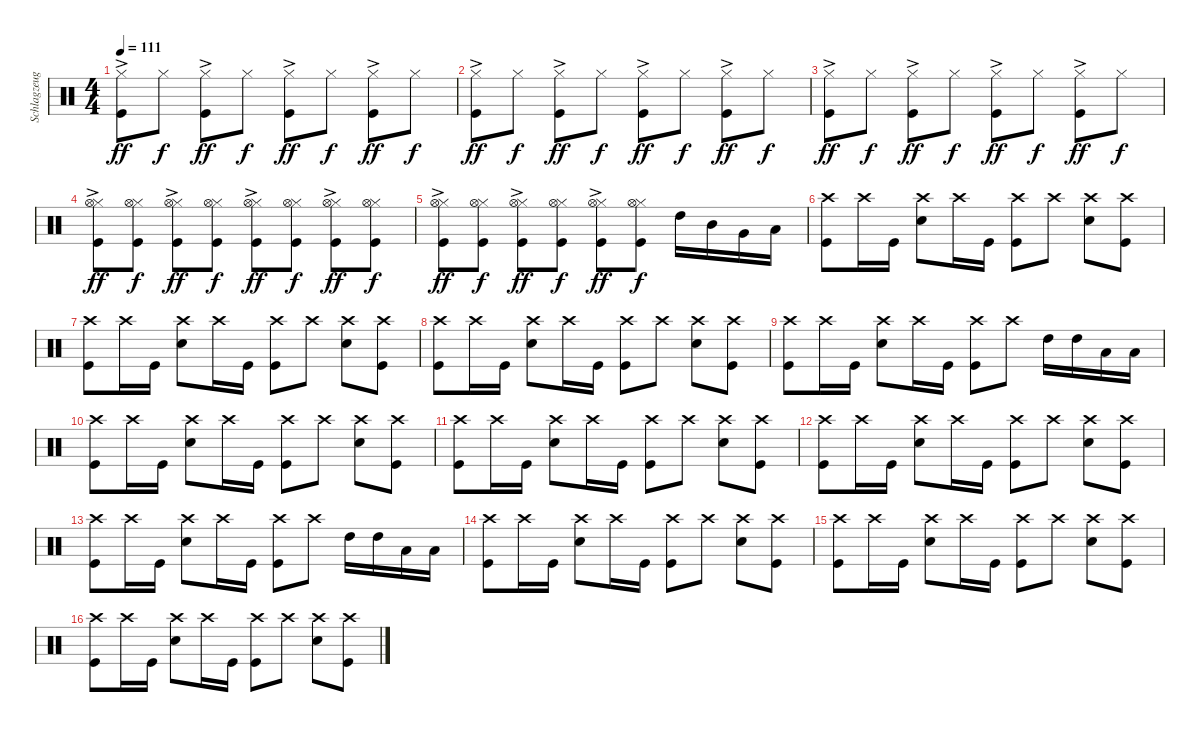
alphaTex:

\track ("Schlagzeug" "Schlagzeug") {solo instrument percussion}
\staff {score}
\articulation defaults
\ts (4 4)
\tempo 111
\clef neutral
\ks c
("Hi-Hat (closed)"{ac} "Kick (hit)").8{dy ff} "Hi-Hat (closed)".8{dy f} ("Hi-Hat (closed)"{ac} "Kick (hit)").8{dy ff} "Hi-Hat (closed)".8{dy f} ("Hi-Hat (closed)"{ac} "Kick (hit)").8{dy ff} "Hi-Hat (closed)".8{dy f} ("Hi-Hat (closed)"{ac} "Kick (hit)").8{dy ff} "Hi-Hat (closed)".8{dy f} |
("Hi-Hat (closed)"{ac} "Kick (hit)").8{dy ff} "Hi-Hat (closed)".8{dy f} ("Hi-Hat (closed)"{ac} "Kick (hit)").8{dy ff} "Hi-Hat (closed)".8{dy f} ("Hi-Hat (closed)"{ac} "Kick (hit)").8{dy ff} "Hi-Hat (closed)".8{dy f} ("Hi-Hat (closed)"{ac} "Kick (hit)").8{dy ff} "Hi-Hat (closed)".8{dy f} |
("Hi-Hat (closed)"{ac} "Kick (hit)").8{dy ff} "Hi-Hat (closed)".8{dy f} ("Hi-Hat (closed)"{ac} "Kick (hit)").8{dy ff} "Hi-Hat (closed)".8{dy f} ("Hi-Hat (closed)"{ac} "Kick (hit)").8{dy ff} "Hi-Hat (closed)".8{dy f} ("Hi-Hat (closed)"{ac} "Kick (hit)").8{dy ff} "Hi-Hat (closed)".8{dy f} |
("Hi-Hat (closed)"{ac} "Kick (hit)" "Hi-Hat (open)").8{dy ff} ("Hi-Hat (closed)" "Hi-Hat (open)" "Kick (hit)").8{dy f} ("Hi-Hat (closed)"{ac} "Kick (hit)" "Hi-Hat (open)").8{dy ff} ("Hi-Hat (closed)" "Hi-Hat (open)" "Kick (hit)").8{dy f} ("Hi-Hat (closed)"{ac} "Kick (hit)" "Hi-Hat (open)").8{dy ff} ("Hi-Hat (closed)" "Hi-Hat (open)" "Kick (hit)").8{dy f} ("Hi-Hat (closed)"{ac} "Kick (hit)" "Hi-Hat (open)").8{dy ff} ("Hi-Hat (closed)" "Hi-Hat (open)" "Kick (hit)").8{dy f} |
("Hi-Hat (closed)"{ac} "Kick (hit)" "Hi-Hat (open)").8{dy ff} ("Hi-Hat (closed)" "Hi-Hat (open)" "Kick (hit)").8{dy f} ("Hi-Hat (closed)"{ac} "Kick (hit)" "Hi-Hat (open)").8{dy ff} ("Hi-Hat (closed)" "Hi-Hat (open)" "Kick (hit)").8{dy f} ("Hi-Hat (closed)"{ac} "Kick (hit)" "Hi-Hat (open)").8{dy ff} ("Hi-Hat (closed)" "Hi-Hat (open)" "Kick (hit)").8{dy f} "High Tom (hit)".16 "Mid Tom (hit)".16 "Very Low Tom (hit)".16 "Low Floor Tom (hit)".16 |
("Crash high (hit)" "Kick (hit)").8 "Crash high (hit)".16 "Kick (hit)".16 ("Crash high (hit)" "Snare (hit) 2").8 "Crash high (hit)".16 "Kick (hit)".16 ("Crash high (hit)" "Kick (hit)").8 "Crash high (hit)".8 ("Snare (hit) 2" "Crash high (hit)").8 ("Crash high (hit)" "Kick (hit)").8 |
("Crash high (hit)" "Kick (hit)").8 "Crash high (hit)".16 "Kick (hit)".16 ("Crash high (hit)" "Snare (hit) 2").8 "Crash high (hit)".16 "Kick (hit)".16 ("Crash high (hit)" "Kick (hit)").8 "Crash high (hit)".8 ("Snare (hit) 2" "Crash high (hit)").8 ("Crash high (hit)" "Kick (hit)").8 |
("Crash high (hit)" "Kick (hit)").8 "Crash high (hit)".16 "Kick (hit)".16 ("Crash high (hit)" "Snare (hit) 2").8 "Crash high (hit)".16 "Kick (hit)".16 ("Crash high (hit)" "Kick (hit)").8 "Crash high (hit)".8 ("Snare (hit) 2" "Crash high (hit)").8 ("Crash high (hit)" "Kick (hit)").8 |
("Crash high (hit)" "Kick (hit)").8 "Crash high (hit)".16 "Kick (hit)".16 ("Crash high (hit)" "Snare (hit) 2").8 "Crash high (hit)".16 "Kick (hit)".16 ("Crash high (hit)" "Kick (hit)").8 "Crash high (hit)".8 "High Tom (hit)".16 "High Tom (hit)".16 "Low Tom (hit)".16 "Low Tom (hit)".16 |
("Crash high (hit)" "Kick (hit)").8 "Crash high (hit)".16 "Kick (hit)".16 ("Crash high (hit)" "Snare (hit) 2").8 "Crash high (hit)".16 "Kick (hit)".16 ("Crash high (hit)" "Kick (hit)").8 "Crash high (hit)".8 ("Snare (hit) 2" "Crash high (hit)").8 ("Crash high (hit)" "Kick (hit)").8 |
("Crash high (hit)" "Kick (hit)").8 "Crash high (hit)".16 "Kick (hit)".16 ("Crash high (hit)" "Snare (hit) 2").8 "Crash high (hit)".16 "Kick (hit)".16 ("Crash high (hit)" "Kick (hit)").8 "Crash high (hit)".8 ("Snare (hit) 2" "Crash high (hit)").8 ("Crash high (hit)" "Kick (hit)").8 |
("Crash high (hit)" "Kick (hit)").8 "Crash high (hit)".16 "Kick (hit)".16 ("Crash high (hit)" "Snare (hit) 2").8 "Crash high (hit)".16 "Kick (hit)".16 ("Crash high (hit)" "Kick (hit)").8 "Crash high (hit)".8 ("Snare (hit) 2" "Crash high (hit)").8 ("Crash high (hit)" "Kick (hit)").8 |
("Crash high (hit)" "Kick (hit)").8 "Crash high (hit)".16 "Kick (hit)".16 ("Crash high (hit)" "Snare (hit) 2").8 "Crash high (hit)".16 "Kick (hit)".16 ("Crash high (hit)" "Kick (hit)").8 "Crash high (hit)".8 "High Tom (hit)".16 "High Tom (hit)".16 "Low Tom (hit)".16 "Low Tom (hit)".16 |
("Crash high (hit)" "Kick (hit)").8 "Crash high (hit)".16 "Kick (hit)".16 ("Crash high (hit)" "Snare (hit) 2").8 "Crash high (hit)".16 "Kick (hit)".16 ("Crash high (hit)" "Kick (hit)").8 "Crash high (hit)".8 ("Snare (hit) 2" "Crash high (hit)").8 ("Crash high (hit)" "Kick (hit)").8 |
("Crash high (hit)" "Kick (hit)").8 "Crash high (hit)".16 "Kick (hit)".16 ("Crash high (hit)" "Snare (hit) 2").8 "Crash high (hit)".16 "Kick (hit)".16 ("Crash high (hit)" "Kick (hit)").8 "Crash high (hit)".8 ("Snare (hit) 2" "Crash high (hit)").8 ("Crash high (hit)" "Kick (hit)").8 |
("Crash high (hit)" "Kick (hit)").8 "Crash high (hit)".16 "Kick (hit)".16 ("Crash high (hit)" "Snare (hit) 2").8 "Crash high (hit)".16 "Kick (hit)".16 ("Crash high (hit)" "Kick (hit)").8 "Crash high (hit)".8 ("Snare (hit) 2" "Crash high (hit)").8 ("Crash high (hit)" "Kick (hit)").8
